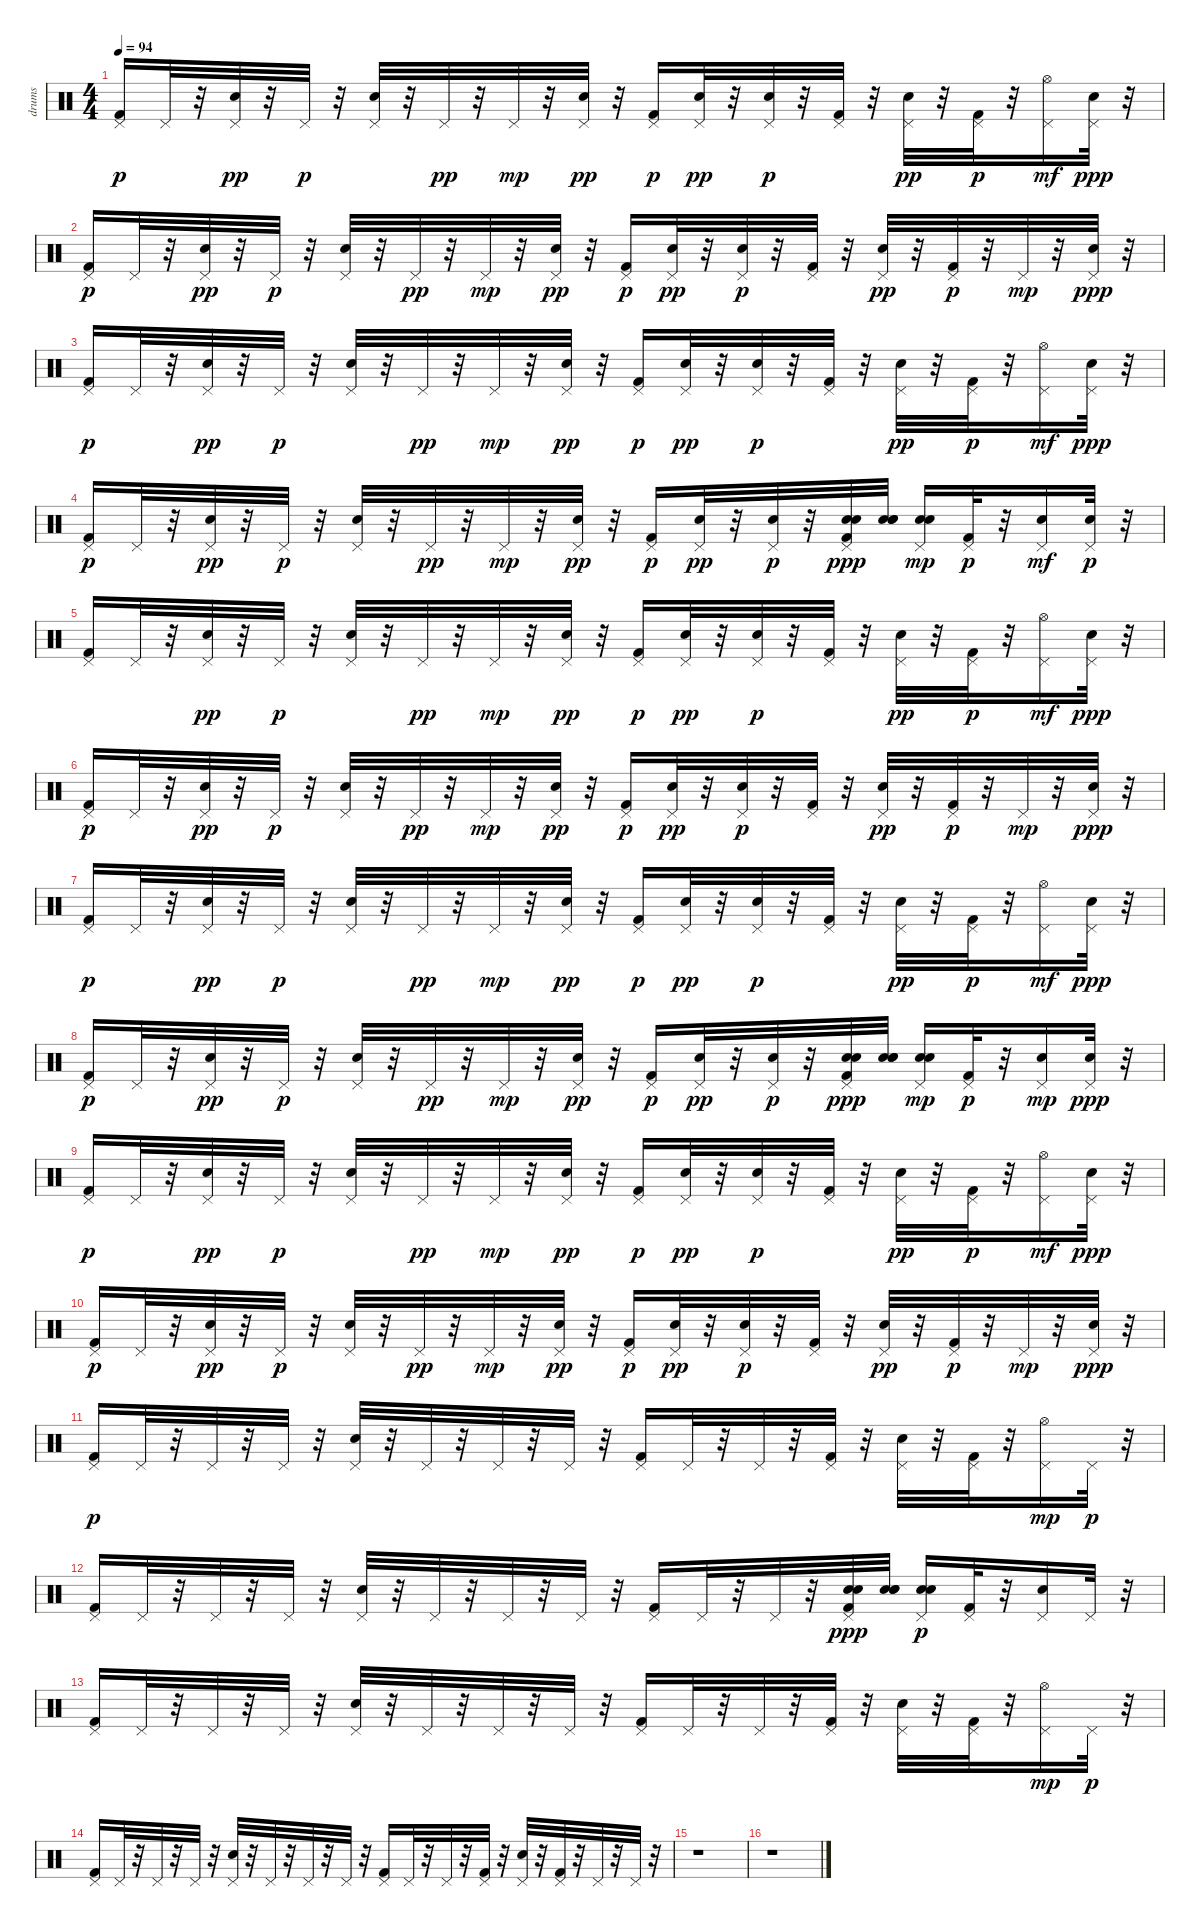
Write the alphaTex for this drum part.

\track ("drums" "drums") {instrument percussion}
\staff {score}
\articulation defaults
\ts (4 4)
\tempo 94
\clef neutral
\ks c
("Pedal Hi-Hat (hit)" "Kick (hit) 2").16{dy p} "Pedal Hi-Hat (hit)".32 r.32 ("Pedal Hi-Hat (hit)" "Electric Snare (hit)").32{dy pp} r.32 "Pedal Hi-Hat (hit)".32{dy p} r.32 ("Pedal Hi-Hat (hit)" "Electric Snare (hit)").32 r.32 "Pedal Hi-Hat (hit)".32{dy pp} r.32 "Pedal Hi-Hat (hit)".32{dy mp} r.32 ("Pedal Hi-Hat (hit)" "Electric Snare (hit)").32{dy pp} r.32 ("Pedal Hi-Hat (hit)" "Kick (hit) 2").16{dy p} ("Pedal Hi-Hat (hit)" "Electric Snare (hit)").32{dy pp} r.32 ("Pedal Hi-Hat (hit)" "Electric Snare (hit)").32{dy p} r.32 ("Pedal Hi-Hat (hit)" "Kick (hit) 2").32 r.32 ("Pedal Hi-Hat (hit)" "Electric Snare (hit)").32{dy pp} r.32 ("Pedal Hi-Hat (hit)" "Kick (hit) 2").32{dy p} r.32 ("Hi-Hat (open)" "Pedal Hi-Hat (hit)").16{dy mf} ("Pedal Hi-Hat (hit)" "Electric Snare (hit)").32{dy ppp} r.32 |
("Pedal Hi-Hat (hit)" "Kick (hit) 2").16{dy p} "Pedal Hi-Hat (hit)".32 r.32 ("Pedal Hi-Hat (hit)" "Electric Snare (hit)").32{dy pp} r.32 "Pedal Hi-Hat (hit)".32{dy p} r.32 ("Pedal Hi-Hat (hit)" "Electric Snare (hit)").32 r.32 "Pedal Hi-Hat (hit)".32{dy pp} r.32 "Pedal Hi-Hat (hit)".32{dy mp} r.32 ("Pedal Hi-Hat (hit)" "Electric Snare (hit)").32{dy pp} r.32 ("Pedal Hi-Hat (hit)" "Kick (hit) 2").16{dy p} ("Pedal Hi-Hat (hit)" "Electric Snare (hit)").32{dy pp} r.32 ("Pedal Hi-Hat (hit)" "Electric Snare (hit)").32{dy p} r.32 ("Pedal Hi-Hat (hit)" "Kick (hit) 2").32 r.32 ("Pedal Hi-Hat (hit)" "Electric Snare (hit)").32{dy pp} r.32 ("Pedal Hi-Hat (hit)" "Kick (hit) 2").32{dy p} r.32 "Pedal Hi-Hat (hit)".32{dy mp} r.32 ("Pedal Hi-Hat (hit)" "Electric Snare (hit)").32{dy ppp} r.32 |
("Pedal Hi-Hat (hit)" "Kick (hit) 2").16{dy p} "Pedal Hi-Hat (hit)".32 r.32 ("Pedal Hi-Hat (hit)" "Electric Snare (hit)").32{dy pp} r.32 "Pedal Hi-Hat (hit)".32{dy p} r.32 ("Pedal Hi-Hat (hit)" "Electric Snare (hit)").32 r.32 "Pedal Hi-Hat (hit)".32{dy pp} r.32 "Pedal Hi-Hat (hit)".32{dy mp} r.32 ("Pedal Hi-Hat (hit)" "Electric Snare (hit)").32{dy pp} r.32 ("Pedal Hi-Hat (hit)" "Kick (hit) 2").16{dy p} ("Pedal Hi-Hat (hit)" "Electric Snare (hit)").32{dy pp} r.32 ("Pedal Hi-Hat (hit)" "Electric Snare (hit)").32{dy p} r.32 ("Pedal Hi-Hat (hit)" "Kick (hit) 2").32 r.32 ("Pedal Hi-Hat (hit)" "Electric Snare (hit)").32{dy pp} r.32 ("Pedal Hi-Hat (hit)" "Kick (hit) 2").32{dy p} r.32 ("Hi-Hat (open)" "Pedal Hi-Hat (hit)").16{dy mf} ("Pedal Hi-Hat (hit)" "Electric Snare (hit)").32{dy ppp} r.32 |
("Pedal Hi-Hat (hit)" "Kick (hit) 2").16{dy p} "Pedal Hi-Hat (hit)".32 r.32 ("Pedal Hi-Hat (hit)" "Electric Snare (hit)").32{dy pp} r.32 "Pedal Hi-Hat (hit)".32{dy p} r.32 ("Pedal Hi-Hat (hit)" "Electric Snare (hit)").32 r.32 "Pedal Hi-Hat (hit)".32{dy pp} r.32 "Pedal Hi-Hat (hit)".32{dy mp} r.32 ("Pedal Hi-Hat (hit)" "Electric Snare (hit)").32{dy pp} r.32 ("Pedal Hi-Hat (hit)" "Kick (hit) 2").16{dy p} ("Pedal Hi-Hat (hit)" "Electric Snare (hit)").32{dy pp} r.32 ("Pedal Hi-Hat (hit)" "Electric Snare (hit)").32{dy p} r.32 ("Snare (hit) 2" "Pedal Hi-Hat (hit)" "Kick (hit) 2" "Snare (hit) 2").32{dy ppp balance 0} ("Snare (hit) 2" "Snare (hit) 2" "Snare (hit) 2").32 ("Snare (hit) 2" "Snare (hit) 2" "Pedal Hi-Hat (hit)").16{dy mp} ("Pedal Hi-Hat (hit)" "Kick (hit) 2").32{dy p} r.32 ("Snare (hit) 2" "Pedal Hi-Hat (hit)").16{dy mf} ("Electric Snare (hit)" "Pedal Hi-Hat (hit)").32{dy p} r.32 |
("Pedal Hi-Hat (hit)" "Kick (hit) 2").16 "Pedal Hi-Hat (hit)".32 r.32 ("Pedal Hi-Hat (hit)" "Electric Snare (hit)").32{dy pp} r.32 "Pedal Hi-Hat (hit)".32{dy p} r.32 ("Pedal Hi-Hat (hit)" "Electric Snare (hit)").32 r.32 "Pedal Hi-Hat (hit)".32{dy pp} r.32 "Pedal Hi-Hat (hit)".32{dy mp} r.32 ("Pedal Hi-Hat (hit)" "Electric Snare (hit)").32{dy pp} r.32 ("Pedal Hi-Hat (hit)" "Kick (hit) 2").16{dy p} ("Pedal Hi-Hat (hit)" "Electric Snare (hit)").32{dy pp} r.32 ("Pedal Hi-Hat (hit)" "Electric Snare (hit)").32{dy p} r.32 ("Pedal Hi-Hat (hit)" "Kick (hit) 2").32 r.32 ("Pedal Hi-Hat (hit)" "Electric Snare (hit)").32{dy pp} r.32 ("Pedal Hi-Hat (hit)" "Kick (hit) 2").32{dy p} r.32 ("Hi-Hat (open)" "Pedal Hi-Hat (hit)").16{dy mf} ("Pedal Hi-Hat (hit)" "Electric Snare (hit)").32{dy ppp} r.32 |
("Pedal Hi-Hat (hit)" "Kick (hit) 2").16{dy p} "Pedal Hi-Hat (hit)".32 r.32 ("Pedal Hi-Hat (hit)" "Electric Snare (hit)").32{dy pp} r.32 "Pedal Hi-Hat (hit)".32{dy p} r.32 ("Pedal Hi-Hat (hit)" "Electric Snare (hit)").32 r.32 "Pedal Hi-Hat (hit)".32{dy pp} r.32 "Pedal Hi-Hat (hit)".32{dy mp} r.32 ("Pedal Hi-Hat (hit)" "Electric Snare (hit)").32{dy pp} r.32 ("Pedal Hi-Hat (hit)" "Kick (hit) 2").16{dy p} ("Pedal Hi-Hat (hit)" "Electric Snare (hit)").32{dy pp} r.32 ("Pedal Hi-Hat (hit)" "Electric Snare (hit)").32{dy p} r.32 ("Pedal Hi-Hat (hit)" "Kick (hit) 2").32 r.32 ("Pedal Hi-Hat (hit)" "Electric Snare (hit)").32{dy pp} r.32 ("Pedal Hi-Hat (hit)" "Kick (hit) 2").32{dy p} r.32 "Pedal Hi-Hat (hit)".32{dy mp} r.32 ("Pedal Hi-Hat (hit)" "Electric Snare (hit)").32{dy ppp} r.32 |
("Pedal Hi-Hat (hit)" "Kick (hit) 2").16{dy p volume 14} "Pedal Hi-Hat (hit)".32 r.32 ("Pedal Hi-Hat (hit)" "Electric Snare (hit)").32{dy pp} r.32 "Pedal Hi-Hat (hit)".32{dy p} r.32 ("Pedal Hi-Hat (hit)" "Electric Snare (hit)").32 r.32 "Pedal Hi-Hat (hit)".32{dy pp} r.32 "Pedal Hi-Hat (hit)".32{dy mp} r.32 ("Pedal Hi-Hat (hit)" "Electric Snare (hit)").32{dy pp} r.32 ("Pedal Hi-Hat (hit)" "Kick (hit) 2").16{dy p} ("Pedal Hi-Hat (hit)" "Electric Snare (hit)").32{dy pp} r.32 ("Pedal Hi-Hat (hit)" "Electric Snare (hit)").32{dy p} r.32 ("Pedal Hi-Hat (hit)" "Kick (hit) 2").32 r.32 ("Pedal Hi-Hat (hit)" "Electric Snare (hit)").32{dy pp} r.32 ("Pedal Hi-Hat (hit)" "Kick (hit) 2").32{dy p} r.32 ("Hi-Hat (open)" "Pedal Hi-Hat (hit)").16{dy mf} ("Pedal Hi-Hat (hit)" "Electric Snare (hit)").32{dy ppp} r.32 |
("Pedal Hi-Hat (hit)" "Kick (hit) 2").16{dy p} "Pedal Hi-Hat (hit)".32 r.32 ("Pedal Hi-Hat (hit)" "Electric Snare (hit)").32{dy pp} r.32 "Pedal Hi-Hat (hit)".32{dy p} r.32 ("Pedal Hi-Hat (hit)" "Electric Snare (hit)").32 r.32 "Pedal Hi-Hat (hit)".32{dy pp} r.32 "Pedal Hi-Hat (hit)".32{dy mp} r.32 ("Pedal Hi-Hat (hit)" "Electric Snare (hit)").32{dy pp} r.32 ("Pedal Hi-Hat (hit)" "Kick (hit) 2").16{dy p} ("Pedal Hi-Hat (hit)" "Electric Snare (hit)").32{dy pp} r.32 ("Pedal Hi-Hat (hit)" "Electric Snare (hit)").32{dy p} r.32 ("Snare (hit) 2" "Pedal Hi-Hat (hit)" "Kick (hit) 2" "Snare (hit) 2").32{dy ppp balance 0} ("Snare (hit) 2" "Snare (hit) 2" "Snare (hit) 2").32 ("Snare (hit) 2" "Snare (hit) 2" "Pedal Hi-Hat (hit)").16{dy mp} ("Pedal Hi-Hat (hit)" "Kick (hit) 2").32{dy p} r.32 ("Snare (hit) 2" "Pedal Hi-Hat (hit)").16{dy mp} ("Pedal Hi-Hat (hit)" "Electric Snare (hit)").32{dy ppp} r.32 |
("Pedal Hi-Hat (hit)" "Kick (hit) 2").16{dy p} "Pedal Hi-Hat (hit)".32 r.32 ("Pedal Hi-Hat (hit)" "Electric Snare (hit)").32{dy pp} r.32 "Pedal Hi-Hat (hit)".32{dy p} r.32 ("Pedal Hi-Hat (hit)" "Electric Snare (hit)").32 r.32 "Pedal Hi-Hat (hit)".32{dy pp} r.32 "Pedal Hi-Hat (hit)".32{dy mp} r.32 ("Pedal Hi-Hat (hit)" "Electric Snare (hit)").32{dy pp} r.32 ("Pedal Hi-Hat (hit)" "Kick (hit) 2").16{dy p} ("Pedal Hi-Hat (hit)" "Electric Snare (hit)").32{dy pp} r.32 ("Pedal Hi-Hat (hit)" "Electric Snare (hit)").32{dy p} r.32 ("Pedal Hi-Hat (hit)" "Kick (hit) 2").32 r.32 ("Pedal Hi-Hat (hit)" "Electric Snare (hit)").32{dy pp} r.32 ("Pedal Hi-Hat (hit)" "Kick (hit) 2").32{dy p} r.32 ("Hi-Hat (open)" "Pedal Hi-Hat (hit)").16{dy mf} ("Pedal Hi-Hat (hit)" "Electric Snare (hit)").32{dy ppp} r.32 |
("Pedal Hi-Hat (hit)" "Kick (hit) 2").16{dy p} "Pedal Hi-Hat (hit)".32 r.32 ("Pedal Hi-Hat (hit)" "Electric Snare (hit)").32{dy pp} r.32 "Pedal Hi-Hat (hit)".32{dy p} r.32 ("Pedal Hi-Hat (hit)" "Electric Snare (hit)").32 r.32 "Pedal Hi-Hat (hit)".32{dy pp} r.32 "Pedal Hi-Hat (hit)".32{dy mp} r.32 ("Pedal Hi-Hat (hit)" "Electric Snare (hit)").32{dy pp} r.32 ("Pedal Hi-Hat (hit)" "Kick (hit) 2").16{dy p} ("Pedal Hi-Hat (hit)" "Electric Snare (hit)").32{dy pp} r.32 ("Pedal Hi-Hat (hit)" "Electric Snare (hit)").32{dy p} r.32 ("Pedal Hi-Hat (hit)" "Kick (hit) 2").32 r.32 ("Pedal Hi-Hat (hit)" "Electric Snare (hit)").32{dy pp} r.32 ("Pedal Hi-Hat (hit)" "Kick (hit) 2").32{dy p} r.32 "Pedal Hi-Hat (hit)".32{dy mp} r.32 ("Pedal Hi-Hat (hit)" "Electric Snare (hit)").32{dy ppp} r.32 |
("Pedal Hi-Hat (hit)" "Kick (hit) 2").16{dy p} "Pedal Hi-Hat (hit)".32 r.32 "Pedal Hi-Hat (hit)".32 r.32 "Pedal Hi-Hat (hit)".32 r.32 ("Snare (hit) 2" "Pedal Hi-Hat (hit)").32 r.32 "Pedal Hi-Hat (hit)".32 r.32 "Pedal Hi-Hat (hit)".32 r.32 "Pedal Hi-Hat (hit)".32 r.32 ("Pedal Hi-Hat (hit)" "Kick (hit) 2").16 "Pedal Hi-Hat (hit)".32 r.32 "Pedal Hi-Hat (hit)".32 r.32 ("Pedal Hi-Hat (hit)" "Kick (hit) 2").32 r.32 ("Snare (hit) 2" "Pedal Hi-Hat (hit)").32 r.32 ("Pedal Hi-Hat (hit)" "Kick (hit) 2").32 r.32 ("Hi-Hat (open)" "Pedal Hi-Hat (hit)").16{dy mp} "Pedal Hi-Hat (hit)".32{dy p} r.32 |
("Pedal Hi-Hat (hit)" "Kick (hit) 2").16 "Pedal Hi-Hat (hit)".32 r.32 "Pedal Hi-Hat (hit)".32 r.32 "Pedal Hi-Hat (hit)".32 r.32 ("Snare (hit) 2" "Pedal Hi-Hat (hit)").32 r.32 "Pedal Hi-Hat (hit)".32 r.32 "Pedal Hi-Hat (hit)".32 r.32 "Pedal Hi-Hat (hit)".32 r.32 ("Pedal Hi-Hat (hit)" "Kick (hit) 2").16 "Pedal Hi-Hat (hit)".32 r.32 "Pedal Hi-Hat (hit)".32 r.32 ("Snare (hit) 2" "Pedal Hi-Hat (hit)" "Kick (hit) 2" "Snare (hit) 2").32{dy ppp balance 0} ("Snare (hit) 2" "Snare (hit) 2" "Snare (hit) 2").32 ("Snare (hit) 2" "Snare (hit) 2" "Pedal Hi-Hat (hit)").16{dy p} ("Pedal Hi-Hat (hit)" "Kick (hit) 2").32 r.32 ("Snare (hit) 2" "Pedal Hi-Hat (hit)").16 "Pedal Hi-Hat (hit)".32 r.32 |
("Pedal Hi-Hat (hit)" "Kick (hit) 2").16 "Pedal Hi-Hat (hit)".32 r.32 "Pedal Hi-Hat (hit)".32 r.32 "Pedal Hi-Hat (hit)".32 r.32 ("Snare (hit) 2" "Pedal Hi-Hat (hit)").32 r.32 "Pedal Hi-Hat (hit)".32 r.32 "Pedal Hi-Hat (hit)".32 r.32 "Pedal Hi-Hat (hit)".32 r.32 ("Pedal Hi-Hat (hit)" "Kick (hit) 2").16 "Pedal Hi-Hat (hit)".32 r.32 "Pedal Hi-Hat (hit)".32 r.32 ("Pedal Hi-Hat (hit)" "Kick (hit) 2").32 r.32 ("Snare (hit) 2" "Pedal Hi-Hat (hit)").32 r.32 ("Pedal Hi-Hat (hit)" "Kick (hit) 2").32 r.32 ("Hi-Hat (open)" "Pedal Hi-Hat (hit)").16{dy mp} "Pedal Hi-Hat (hit)".32{dy p} r.32 |
("Pedal Hi-Hat (hit)" "Kick (hit) 2").16 "Pedal Hi-Hat (hit)".32 r.32 "Pedal Hi-Hat (hit)".32 r.32 "Pedal Hi-Hat (hit)".32 r.32 ("Snare (hit) 2" "Pedal Hi-Hat (hit)").32 r.32 "Pedal Hi-Hat (hit)".32 r.32 "Pedal Hi-Hat (hit)".32 r.32 "Pedal Hi-Hat (hit)".32 r.32 ("Pedal Hi-Hat (hit)" "Kick (hit) 2").16 "Pedal Hi-Hat (hit)".32 r.32 "Pedal Hi-Hat (hit)".32 r.32 ("Pedal Hi-Hat (hit)" "Kick (hit) 2").32 r.32 ("Snare (hit) 2" "Pedal Hi-Hat (hit)").32 r.32 ("Pedal Hi-Hat (hit)" "Kick (hit) 2").32 r.32 "Pedal Hi-Hat (hit)".32 r.32 "Pedal Hi-Hat (hit)".32 r.32 |
r.1 |
r.1
